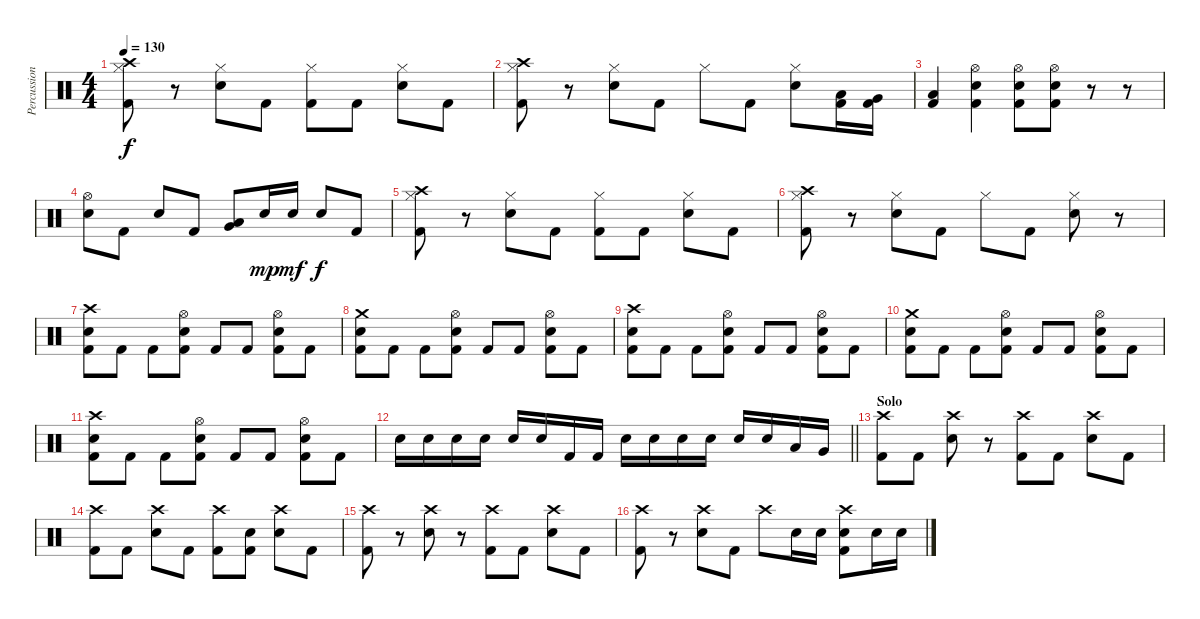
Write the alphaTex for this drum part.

\track ("Percussion" "Percussion") {instrument percussion}
\staff {score}
\articulation defaults
\ts (4 4)
\tempo 130
\clef neutral
\ks c
("Crash high (hit)" "Hi-Hat (closed)" "Kick (hit) 2").8{dy f} r.8 ("Hi-Hat (closed)" "Snare (hit) 2").8 "Kick (hit) 2".8 ("Hi-Hat (closed)" "Kick (hit) 2").8 "Kick (hit) 2".8 ("Hi-Hat (closed)" "Snare (hit) 2").8 "Kick (hit) 2".8 |
("Crash high (hit)" "Hi-Hat (closed)" "Kick (hit) 2").8 r.8 ("Hi-Hat (closed)" "Snare (hit) 2").8 "Kick (hit) 2".8 "Hi-Hat (closed)".8 "Kick (hit) 2".8 ("Hi-Hat (closed)" "Snare (hit) 2").8 ("Low Tom (hit)" "Kick (hit) 2").16 ("Very Low Tom (hit)" "Kick (hit) 2").16 |
("Low Floor Tom (hit)" "Kick (hit) 2").4 ("Hi-Hat (open)" "Snare (hit) 2" "Kick (hit) 2").4 ("Hi-Hat (open)" "Snare (hit) 2" "Kick (hit) 2").8 ("Hi-Hat (open)" "Snare (hit) 2" "Kick (hit) 2").8 r.8 r.8 |
("Hi-Hat (open)" "Snare (hit) 2").8 "Kick (hit) 2".8 "Snare (hit) 2".8 "Kick (hit) 2".8 ("Very Low Tom (hit)" "Low Floor Tom (hit)").8 "Snare (hit) 2".16{dy mp} "Snare (hit) 2".16{dy mf} "Snare (hit) 2".8{dy f} "Kick (hit) 2".8 |
("Crash high (hit)" "Hi-Hat (closed)" "Kick (hit) 2").8 r.8 ("Hi-Hat (closed)" "Snare (hit) 2").8 "Kick (hit) 2".8 ("Hi-Hat (closed)" "Kick (hit) 2").8 "Kick (hit) 2".8 ("Hi-Hat (closed)" "Snare (hit) 2").8 "Kick (hit) 2".8 |
("Crash high (hit)" "Hi-Hat (closed)" "Kick (hit) 2").8 r.8 ("Hi-Hat (closed)" "Snare (hit) 2").8 "Kick (hit) 2".8 "Hi-Hat (closed)".8 "Kick (hit) 2".8 ("Hi-Hat (closed)" "Snare (hit) 2").8 r.8 |
("Crash high (hit)" "Snare (hit) 2" "Kick (hit) 2").8 "Kick (hit) 2".8 "Kick (hit) 2".8 ("Hi-Hat (open)" "Snare (hit) 2" "Kick (hit) 2").8 "Kick (hit) 2".8 "Kick (hit) 2".8 ("Hi-Hat (open)" "Snare (hit) 2" "Kick (hit) 2").8 "Kick (hit) 2".8 |
("Crash medium (hit)" "Snare (hit) 2" "Kick (hit) 2").8 "Kick (hit) 2".8 "Kick (hit) 2".8 ("Hi-Hat (open)" "Snare (hit) 2" "Kick (hit) 2").8 "Kick (hit) 2".8 "Kick (hit) 2".8 ("Hi-Hat (open)" "Snare (hit) 2" "Kick (hit) 2").8 "Kick (hit) 2".8 |
("Crash high (hit)" "Snare (hit) 2" "Kick (hit) 2").8 "Kick (hit) 2".8 "Kick (hit) 2".8 ("Hi-Hat (open)" "Snare (hit) 2" "Kick (hit) 2").8 "Kick (hit) 2".8 "Kick (hit) 2".8 ("Hi-Hat (open)" "Snare (hit) 2" "Kick (hit) 2").8 "Kick (hit) 2".8 |
("Crash medium (hit)" "Snare (hit) 2" "Kick (hit) 2").8 "Kick (hit) 2".8 "Kick (hit) 2".8 ("Hi-Hat (open)" "Snare (hit) 2" "Kick (hit) 2").8 "Kick (hit) 2".8 "Kick (hit) 2".8 ("Hi-Hat (open)" "Snare (hit) 2" "Kick (hit) 2").8 "Kick (hit) 2".8 |
("Crash high (hit)" "Snare (hit) 2" "Kick (hit) 2").8 "Kick (hit) 2".8 "Kick (hit) 2".8 ("Hi-Hat (open)" "Snare (hit) 2" "Kick (hit) 2").8 "Kick (hit) 2".8 "Kick (hit) 2".8 ("Hi-Hat (open)" "Snare (hit) 2" "Kick (hit) 2").8 "Kick (hit) 2".8 |
\barLineRight lightlight "Snare (hit) 2".16 "Snare (hit) 2".16 "Snare (hit) 2".16 "Snare (hit) 2".16 "Snare (hit) 2".16 "Snare (hit) 2".16 "Kick (hit) 2".16 "Kick (hit) 2".16 "Snare (hit) 2".16 "Snare (hit) 2".16 "Snare (hit) 2".16 "Snare (hit) 2".16 "Snare (hit) 2".16 "Snare (hit) 2".16 "Low Tom (hit)".16 "Very Low Tom (hit)".16
|
\section ("" "Solo")
("Crash high (hit)" "Kick (hit) 2").8 "Kick (hit) 2".8 ("Crash high (hit)" "Snare (hit) 2").8 r.8 ("Crash high (hit)" "Kick (hit) 2").8 "Kick (hit) 2".8 ("Crash high (hit)" "Snare (hit) 2").8 "Kick (hit) 2".8 |
("Crash high (hit)" "Kick (hit) 2").8 "Kick (hit) 2".8 ("Crash high (hit)" "Snare (hit) 2").8 "Kick (hit) 2".8 ("Crash high (hit)" "Kick (hit) 2").8 ("Snare (hit) 2" "Kick (hit) 2").8 ("Crash high (hit)" "Snare (hit) 2").8 "Kick (hit) 2".8 |
("Crash high (hit)" "Kick (hit) 2").8 r.8 ("Crash high (hit)" "Snare (hit) 2").8 r.8 ("Crash high (hit)" "Kick (hit) 2").8 "Kick (hit) 2".8 ("Crash high (hit)" "Snare (hit) 2").8 "Kick (hit) 2".8 |
("Crash high (hit)" "Kick (hit) 2").8 r.8 ("Crash high (hit)" "Snare (hit) 2").8 "Kick (hit) 2".8 "Crash high (hit)".8 "Snare (hit) 2".16 "Snare (hit) 2".16 ("Crash high (hit)" "Snare (hit) 2" "Kick (hit) 2").8 "Snare (hit) 2".16 "Snare (hit) 2".16
